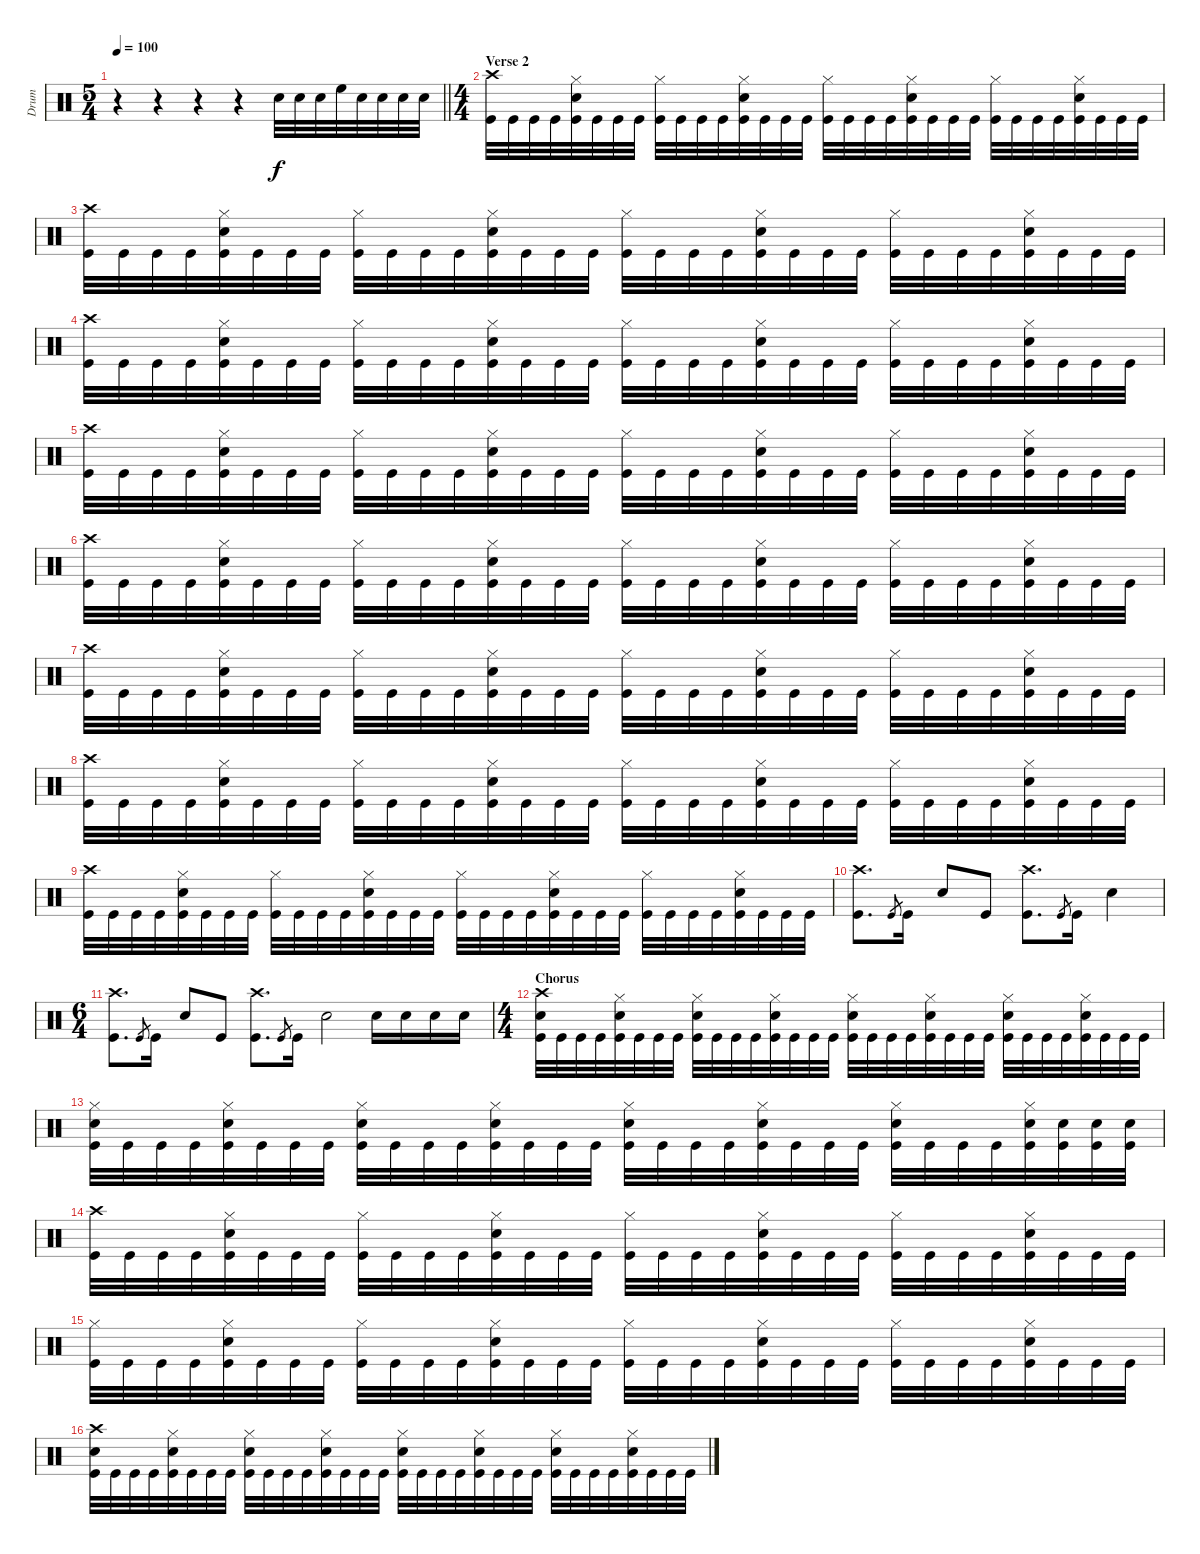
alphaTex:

\track ("Drum" "Drum") {instrument percussion}
\staff {score}
\articulation defaults
\ts (5 4)
\tempo 100
\clef neutral
\barLineRight lightlight
\ks c
r.4{dy f} r.4 r.4 r.4 "Snare (hit) 2".32 "Snare (hit) 2".32 "Snare (hit) 2".32 "High Floor Tom (hit)".32 "Snare (hit) 2".32 "Snare (hit) 2".32 "Snare (hit) 2".32 "Snare (hit) 2".32 |
\ts (4 4)
\section ("" "Verse 2")
("Kick (hit)" "Crash high (hit)").32 "Kick (hit)".32 "Kick (hit)".32 "Kick (hit)".32 ("Kick (hit)" "Snare (hit) 2" "Hi-Hat (closed)").32 "Kick (hit)".32 "Kick (hit)".32 "Kick (hit)".32 ("Kick (hit)" "Hi-Hat (closed)").32 "Kick (hit)".32 "Kick (hit)".32 "Kick (hit)".32 ("Kick (hit)" "Hi-Hat (closed)" "Snare (hit) 2").32 "Kick (hit)".32 "Kick (hit)".32 "Kick (hit)".32 ("Kick (hit)" "Hi-Hat (closed)").32 "Kick (hit)".32 "Kick (hit)".32 "Kick (hit)".32 ("Snare (hit) 2" "Kick (hit)" "Hi-Hat (closed)").32 "Kick (hit)".32 "Kick (hit)".32 "Kick (hit)".32 ("Kick (hit)" "Hi-Hat (closed)").32 "Kick (hit)".32 "Kick (hit)".32 "Kick (hit)".32 ("Kick (hit)" "Snare (hit) 2" "Hi-Hat (closed)").32 "Kick (hit)".32 "Kick (hit)".32 "Kick (hit)".32 |
("Kick (hit)" "Crash high (hit)").32 "Kick (hit)".32 "Kick (hit)".32 "Kick (hit)".32 ("Kick (hit)" "Snare (hit) 2" "Hi-Hat (closed)").32 "Kick (hit)".32 "Kick (hit)".32 "Kick (hit)".32 ("Kick (hit)" "Hi-Hat (closed)").32 "Kick (hit)".32 "Kick (hit)".32 "Kick (hit)".32 ("Kick (hit)" "Hi-Hat (closed)" "Snare (hit) 2").32 "Kick (hit)".32 "Kick (hit)".32 "Kick (hit)".32 ("Kick (hit)" "Hi-Hat (closed)").32 "Kick (hit)".32 "Kick (hit)".32 "Kick (hit)".32 ("Snare (hit) 2" "Kick (hit)" "Hi-Hat (closed)").32 "Kick (hit)".32 "Kick (hit)".32 "Kick (hit)".32 ("Kick (hit)" "Hi-Hat (closed)").32 "Kick (hit)".32 "Kick (hit)".32 "Kick (hit)".32 ("Kick (hit)" "Snare (hit) 2" "Hi-Hat (closed)").32 "Kick (hit)".32 "Kick (hit)".32 "Kick (hit)".32 |
("Kick (hit)" "Crash high (hit)").32 "Kick (hit)".32 "Kick (hit)".32 "Kick (hit)".32 ("Kick (hit)" "Snare (hit) 2" "Hi-Hat (closed)").32 "Kick (hit)".32 "Kick (hit)".32 "Kick (hit)".32 ("Kick (hit)" "Hi-Hat (closed)").32 "Kick (hit)".32 "Kick (hit)".32 "Kick (hit)".32 ("Kick (hit)" "Hi-Hat (closed)" "Snare (hit) 2").32 "Kick (hit)".32 "Kick (hit)".32 "Kick (hit)".32 ("Kick (hit)" "Hi-Hat (closed)").32 "Kick (hit)".32 "Kick (hit)".32 "Kick (hit)".32 ("Snare (hit) 2" "Kick (hit)" "Hi-Hat (closed)").32 "Kick (hit)".32 "Kick (hit)".32 "Kick (hit)".32 ("Kick (hit)" "Hi-Hat (closed)").32 "Kick (hit)".32 "Kick (hit)".32 "Kick (hit)".32 ("Kick (hit)" "Snare (hit) 2" "Hi-Hat (closed)").32 "Kick (hit)".32 "Kick (hit)".32 "Kick (hit)".32 |
("Kick (hit)" "Crash high (hit)").32 "Kick (hit)".32 "Kick (hit)".32 "Kick (hit)".32 ("Kick (hit)" "Snare (hit) 2" "Hi-Hat (closed)").32 "Kick (hit)".32 "Kick (hit)".32 "Kick (hit)".32 ("Kick (hit)" "Hi-Hat (closed)").32 "Kick (hit)".32 "Kick (hit)".32 "Kick (hit)".32 ("Kick (hit)" "Hi-Hat (closed)" "Snare (hit) 2").32 "Kick (hit)".32 "Kick (hit)".32 "Kick (hit)".32 ("Kick (hit)" "Hi-Hat (closed)").32 "Kick (hit)".32 "Kick (hit)".32 "Kick (hit)".32 ("Snare (hit) 2" "Kick (hit)" "Hi-Hat (closed)").32 "Kick (hit)".32 "Kick (hit)".32 "Kick (hit)".32 ("Kick (hit)" "Hi-Hat (closed)").32 "Kick (hit)".32 "Kick (hit)".32 "Kick (hit)".32 ("Kick (hit)" "Snare (hit) 2" "Hi-Hat (closed)").32 "Kick (hit)".32 "Kick (hit)".32 "Kick (hit)".32 |
("Kick (hit)" "Crash high (hit)").32 "Kick (hit)".32 "Kick (hit)".32 "Kick (hit)".32 ("Kick (hit)" "Snare (hit) 2" "Hi-Hat (closed)").32 "Kick (hit)".32 "Kick (hit)".32 "Kick (hit)".32 ("Kick (hit)" "Hi-Hat (closed)").32 "Kick (hit)".32 "Kick (hit)".32 "Kick (hit)".32 ("Kick (hit)" "Hi-Hat (closed)" "Snare (hit) 2").32 "Kick (hit)".32 "Kick (hit)".32 "Kick (hit)".32 ("Kick (hit)" "Hi-Hat (closed)").32 "Kick (hit)".32 "Kick (hit)".32 "Kick (hit)".32 ("Snare (hit) 2" "Kick (hit)" "Hi-Hat (closed)").32 "Kick (hit)".32 "Kick (hit)".32 "Kick (hit)".32 ("Kick (hit)" "Hi-Hat (closed)").32 "Kick (hit)".32 "Kick (hit)".32 "Kick (hit)".32 ("Kick (hit)" "Snare (hit) 2" "Hi-Hat (closed)").32 "Kick (hit)".32 "Kick (hit)".32 "Kick (hit)".32 |
("Kick (hit)" "Crash high (hit)").32 "Kick (hit)".32 "Kick (hit)".32 "Kick (hit)".32 ("Kick (hit)" "Snare (hit) 2" "Hi-Hat (closed)").32 "Kick (hit)".32 "Kick (hit)".32 "Kick (hit)".32 ("Kick (hit)" "Hi-Hat (closed)").32 "Kick (hit)".32 "Kick (hit)".32 "Kick (hit)".32 ("Kick (hit)" "Hi-Hat (closed)" "Snare (hit) 2").32 "Kick (hit)".32 "Kick (hit)".32 "Kick (hit)".32 ("Kick (hit)" "Hi-Hat (closed)").32 "Kick (hit)".32 "Kick (hit)".32 "Kick (hit)".32 ("Snare (hit) 2" "Kick (hit)" "Hi-Hat (closed)").32 "Kick (hit)".32 "Kick (hit)".32 "Kick (hit)".32 ("Kick (hit)" "Hi-Hat (closed)").32 "Kick (hit)".32 "Kick (hit)".32 "Kick (hit)".32 ("Kick (hit)" "Snare (hit) 2" "Hi-Hat (closed)").32 "Kick (hit)".32 "Kick (hit)".32 "Kick (hit)".32 |
("Kick (hit)" "Crash high (hit)").32 "Kick (hit)".32 "Kick (hit)".32 "Kick (hit)".32 ("Kick (hit)" "Snare (hit) 2" "Hi-Hat (closed)").32 "Kick (hit)".32 "Kick (hit)".32 "Kick (hit)".32 ("Kick (hit)" "Hi-Hat (closed)").32 "Kick (hit)".32 "Kick (hit)".32 "Kick (hit)".32 ("Kick (hit)" "Hi-Hat (closed)" "Snare (hit) 2").32 "Kick (hit)".32 "Kick (hit)".32 "Kick (hit)".32 ("Kick (hit)" "Hi-Hat (closed)").32 "Kick (hit)".32 "Kick (hit)".32 "Kick (hit)".32 ("Snare (hit) 2" "Kick (hit)" "Hi-Hat (closed)").32 "Kick (hit)".32 "Kick (hit)".32 "Kick (hit)".32 ("Kick (hit)" "Hi-Hat (closed)").32 "Kick (hit)".32 "Kick (hit)".32 "Kick (hit)".32 ("Kick (hit)" "Snare (hit) 2" "Hi-Hat (closed)").32 "Kick (hit)".32 "Kick (hit)".32 "Kick (hit)".32 |
("Kick (hit)" "Crash high (hit)").32 "Kick (hit)".32 "Kick (hit)".32 "Kick (hit)".32 ("Kick (hit)" "Snare (hit) 2" "Hi-Hat (closed)").32 "Kick (hit)".32 "Kick (hit)".32 "Kick (hit)".32 ("Kick (hit)" "Hi-Hat (closed)").32 "Kick (hit)".32 "Kick (hit)".32 "Kick (hit)".32 ("Kick (hit)" "Hi-Hat (closed)" "Snare (hit) 2").32 "Kick (hit)".32 "Kick (hit)".32 "Kick (hit)".32 ("Kick (hit)" "Hi-Hat (closed)").32 "Kick (hit)".32 "Kick (hit)".32 "Kick (hit)".32 ("Snare (hit) 2" "Kick (hit)" "Hi-Hat (closed)").32 "Kick (hit)".32 "Kick (hit)".32 "Kick (hit)".32 ("Kick (hit)" "Hi-Hat (closed)").32 "Kick (hit)".32 "Kick (hit)".32 "Kick (hit)".32 ("Kick (hit)" "Snare (hit) 2" "Hi-Hat (closed)").32 "Kick (hit)".32 "Kick (hit)".32 "Kick (hit)".32 |
("Crash high (hit)" "Kick (hit)").8{d} "Kick (hit)".8{gr} "Kick (hit)".16 "Snare (hit) 2".8 "Kick (hit)".8 ("Crash high (hit)" "Kick (hit)").8{d} "Kick (hit)".8{gr} "Kick (hit)".16 "Snare (hit) 2".4 |
\ts (6 4)
("Crash high (hit)" "Kick (hit)").8{d} "Kick (hit)".8{gr} "Kick (hit)".16 "Snare (hit) 2".8 "Kick (hit)".8 ("Crash high (hit)" "Kick (hit)").8{d} "Kick (hit)".8{gr} "Kick (hit)".16 "Snare (hit) 2".2 "Snare (hit) 2".16 "Snare (hit) 2".16 "Snare (hit) 2".16 "Snare (hit) 2".16 |
\ts (4 4)
\section ("" "Chorus")
("Kick (hit)" "Snare (hit) 2" "Crash high (hit)").32 "Kick (hit)".32 "Kick (hit)".32 "Kick (hit)".32 ("Kick (hit)" "Snare (hit) 2" "Hi-Hat (closed)").32 "Kick (hit)".32 "Kick (hit)".32 "Kick (hit)".32 ("Snare (hit) 2" "Kick (hit)" "Hi-Hat (closed)").32 "Kick (hit)".32 "Kick (hit)".32 "Kick (hit)".32 ("Kick (hit)" "Hi-Hat (closed)" "Snare (hit) 2").32 "Kick (hit)".32 "Kick (hit)".32 "Kick (hit)".32 ("Kick (hit)" "Snare (hit) 2" "Hi-Hat (closed)").32 "Kick (hit)".32 "Kick (hit)".32 "Kick (hit)".32 ("Snare (hit) 2" "Kick (hit)" "Hi-Hat (closed)").32 "Kick (hit)".32 "Kick (hit)".32 "Kick (hit)".32 ("Kick (hit)" "Snare (hit) 2" "Hi-Hat (closed)").32 "Kick (hit)".32 "Kick (hit)".32 "Kick (hit)".32 ("Kick (hit)" "Snare (hit) 2" "Hi-Hat (closed)").32 "Kick (hit)".32 "Kick (hit)".32 "Kick (hit)".32 |
("Kick (hit)" "Snare (hit) 2" "Hi-Hat (closed)").32 "Kick (hit)".32 "Kick (hit)".32 "Kick (hit)".32 ("Kick (hit)" "Snare (hit) 2" "Hi-Hat (closed)").32 "Kick (hit)".32 "Kick (hit)".32 "Kick (hit)".32 ("Snare (hit) 2" "Kick (hit)" "Hi-Hat (closed)").32 "Kick (hit)".32 "Kick (hit)".32 "Kick (hit)".32 ("Kick (hit)" "Hi-Hat (closed)" "Snare (hit) 2").32 "Kick (hit)".32 "Kick (hit)".32 "Kick (hit)".32 ("Kick (hit)" "Snare (hit) 2" "Hi-Hat (closed)").32 "Kick (hit)".32 "Kick (hit)".32 "Kick (hit)".32 ("Snare (hit) 2" "Kick (hit)" "Hi-Hat (closed)").32 "Kick (hit)".32 "Kick (hit)".32 "Kick (hit)".32 ("Kick (hit)" "Snare (hit) 2" "Hi-Hat (closed)").32 "Kick (hit)".32 "Kick (hit)".32 "Kick (hit)".32 ("Kick (hit)" "Snare (hit) 2" "Hi-Hat (closed)").32 ("Kick (hit)" "Snare (hit) 2").32 ("Kick (hit)" "Snare (hit) 2").32 ("Kick (hit)" "Snare (hit) 2").32 |
("Kick (hit)" "Crash high (hit)").32 "Kick (hit)".32 "Kick (hit)".32 "Kick (hit)".32 ("Kick (hit)" "Snare (hit) 2" "Hi-Hat (closed)").32 "Kick (hit)".32 "Kick (hit)".32 "Kick (hit)".32 ("Kick (hit)" "Hi-Hat (closed)").32 "Kick (hit)".32 "Kick (hit)".32 "Kick (hit)".32 ("Kick (hit)" "Hi-Hat (closed)" "Snare (hit) 2").32 "Kick (hit)".32 "Kick (hit)".32 "Kick (hit)".32 ("Kick (hit)" "Hi-Hat (closed)").32 "Kick (hit)".32 "Kick (hit)".32 "Kick (hit)".32 ("Snare (hit) 2" "Kick (hit)" "Hi-Hat (closed)").32 "Kick (hit)".32 "Kick (hit)".32 "Kick (hit)".32 ("Kick (hit)" "Hi-Hat (closed)").32 "Kick (hit)".32 "Kick (hit)".32 "Kick (hit)".32 ("Kick (hit)" "Snare (hit) 2" "Hi-Hat (closed)").32 "Kick (hit)".32 "Kick (hit)".32 "Kick (hit)".32 |
("Kick (hit)" "Hi-Hat (closed)").32 "Kick (hit)".32 "Kick (hit)".32 "Kick (hit)".32 ("Kick (hit)" "Snare (hit) 2" "Hi-Hat (closed)").32 "Kick (hit)".32 "Kick (hit)".32 "Kick (hit)".32 ("Kick (hit)" "Hi-Hat (closed)").32 "Kick (hit)".32 "Kick (hit)".32 "Kick (hit)".32 ("Kick (hit)" "Hi-Hat (closed)" "Snare (hit) 2").32 "Kick (hit)".32 "Kick (hit)".32 "Kick (hit)".32 ("Kick (hit)" "Hi-Hat (closed)").32 "Kick (hit)".32 "Kick (hit)".32 "Kick (hit)".32 ("Snare (hit) 2" "Kick (hit)" "Hi-Hat (closed)").32 "Kick (hit)".32 "Kick (hit)".32 "Kick (hit)".32 ("Kick (hit)" "Hi-Hat (closed)").32 "Kick (hit)".32 "Kick (hit)".32 "Kick (hit)".32 ("Kick (hit)" "Snare (hit) 2" "Hi-Hat (closed)").32 "Kick (hit)".32 "Kick (hit)".32 "Kick (hit)".32 |
("Kick (hit)" "Snare (hit) 2" "Crash high (hit)").32 "Kick (hit)".32 "Kick (hit)".32 "Kick (hit)".32 ("Kick (hit)" "Snare (hit) 2" "Hi-Hat (closed)").32 "Kick (hit)".32 "Kick (hit)".32 "Kick (hit)".32 ("Snare (hit) 2" "Kick (hit)" "Hi-Hat (closed)").32 "Kick (hit)".32 "Kick (hit)".32 "Kick (hit)".32 ("Kick (hit)" "Hi-Hat (closed)" "Snare (hit) 2").32 "Kick (hit)".32 "Kick (hit)".32 "Kick (hit)".32 ("Kick (hit)" "Snare (hit) 2" "Hi-Hat (closed)").32 "Kick (hit)".32 "Kick (hit)".32 "Kick (hit)".32 ("Snare (hit) 2" "Kick (hit)" "Hi-Hat (closed)").32 "Kick (hit)".32 "Kick (hit)".32 "Kick (hit)".32 ("Kick (hit)" "Snare (hit) 2" "Hi-Hat (closed)").32 "Kick (hit)".32 "Kick (hit)".32 "Kick (hit)".32 ("Kick (hit)" "Snare (hit) 2" "Hi-Hat (closed)").32 "Kick (hit)".32 "Kick (hit)".32 "Kick (hit)".32
